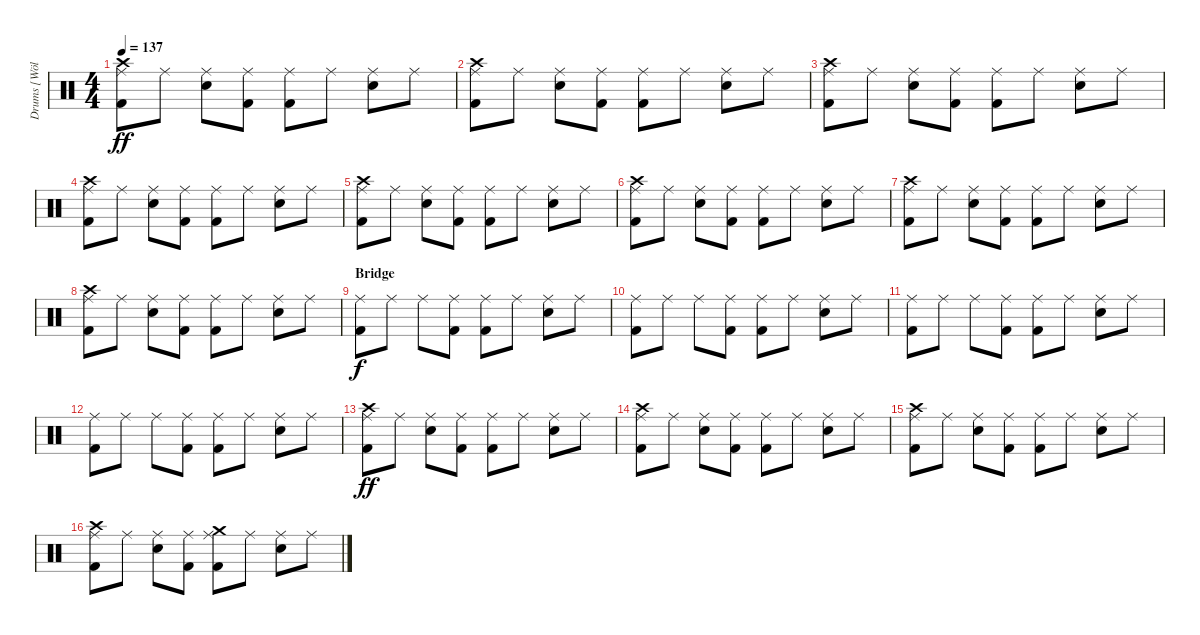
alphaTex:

\track ("Drums [Wölli]" "Drums [Wöl") {instrument percussion}
\staff {score}
\articulation defaults
\ts (4 4)
\tempo 137
\clef neutral
\ks c
("Ride (middle)" "Kick (hit) 2" "Crash high (hit)").8{dy ff} "Ride (middle)".8 ("Ride (middle)" "Snare (hit) 2").8 ("Ride (middle)" "Kick (hit) 2").8 ("Ride (middle)" "Kick (hit) 2").8 "Ride (middle)".8 ("Ride (middle)" "Snare (hit) 2").8 "Ride (middle)".8 |
("Ride (middle)" "Kick (hit) 2" "Crash high (hit)").8 "Ride (middle)".8 ("Ride (middle)" "Snare (hit) 2").8 ("Ride (middle)" "Kick (hit) 2").8 ("Ride (middle)" "Kick (hit) 2").8 "Ride (middle)".8 ("Ride (middle)" "Snare (hit) 2").8 "Ride (middle)".8 |
("Ride (middle)" "Kick (hit) 2" "Crash high (hit)").8 "Ride (middle)".8 ("Ride (middle)" "Snare (hit) 2").8 ("Ride (middle)" "Kick (hit) 2").8 ("Ride (middle)" "Kick (hit) 2").8 "Ride (middle)".8 ("Ride (middle)" "Snare (hit) 2").8 "Ride (middle)".8 |
("Ride (middle)" "Kick (hit) 2" "Crash high (hit)").8 "Ride (middle)".8 ("Ride (middle)" "Snare (hit) 2").8 ("Ride (middle)" "Kick (hit) 2").8 ("Ride (middle)" "Kick (hit) 2").8 "Ride (middle)".8 ("Ride (middle)" "Snare (hit) 2").8 "Ride (middle)".8 |
("Ride (middle)" "Kick (hit) 2" "Crash high (hit)").8 "Ride (middle)".8 ("Ride (middle)" "Snare (hit) 2").8 ("Ride (middle)" "Kick (hit) 2").8 ("Ride (middle)" "Kick (hit) 2").8 "Ride (middle)".8 ("Ride (middle)" "Snare (hit) 2").8 "Ride (middle)".8 |
("Ride (middle)" "Kick (hit) 2" "Crash high (hit)").8 "Ride (middle)".8 ("Ride (middle)" "Snare (hit) 2").8 ("Ride (middle)" "Kick (hit) 2").8 ("Ride (middle)" "Kick (hit) 2").8 "Ride (middle)".8 ("Ride (middle)" "Snare (hit) 2").8 "Ride (middle)".8 |
("Ride (middle)" "Kick (hit) 2" "Crash high (hit)").8 "Ride (middle)".8 ("Ride (middle)" "Snare (hit) 2").8 ("Ride (middle)" "Kick (hit) 2").8 ("Ride (middle)" "Kick (hit) 2").8 "Ride (middle)".8 ("Ride (middle)" "Snare (hit) 2").8 "Ride (middle)".8 |
("Ride (middle)" "Kick (hit) 2" "Crash high (hit)").8 "Ride (middle)".8 ("Ride (middle)" "Snare (hit) 2").8 ("Ride (middle)" "Kick (hit) 2").8 ("Ride (middle)" "Kick (hit) 2").8 "Ride (middle)".8 ("Ride (middle)" "Snare (hit) 2").8 "Ride (middle)".8 |
\section ("" "Bridge")
("Ride (middle)" "Kick (hit) 2").8{dy f} "Ride (middle)".8 "Ride (middle)".8 ("Ride (middle)" "Kick (hit) 2").8 ("Ride (middle)" "Kick (hit) 2").8 "Ride (middle)".8 ("Ride (middle)" "Snare (hit) 2").8 "Ride (middle)".8 |
("Ride (middle)" "Kick (hit) 2").8 "Ride (middle)".8 "Ride (middle)".8 ("Ride (middle)" "Kick (hit) 2").8 ("Ride (middle)" "Kick (hit) 2").8 "Ride (middle)".8 ("Ride (middle)" "Snare (hit) 2").8 "Ride (middle)".8 |
("Ride (middle)" "Kick (hit) 2").8 "Ride (middle)".8 "Ride (middle)".8 ("Ride (middle)" "Kick (hit) 2").8 ("Ride (middle)" "Kick (hit) 2").8 "Ride (middle)".8 ("Ride (middle)" "Snare (hit) 2").8 "Ride (middle)".8 |
("Ride (middle)" "Kick (hit) 2").8 "Ride (middle)".8 "Ride (middle)".8 ("Ride (middle)" "Kick (hit) 2").8 ("Ride (middle)" "Kick (hit) 2").8 "Ride (middle)".8 ("Ride (middle)" "Snare (hit) 2").8 "Ride (middle)".8 |
("Ride (middle)" "Kick (hit) 2" "Crash high (hit)").8{dy ff} "Ride (middle)".8 ("Ride (middle)" "Snare (hit) 2").8 ("Ride (middle)" "Kick (hit) 2").8 ("Ride (middle)" "Kick (hit) 2").8 "Ride (middle)".8 ("Ride (middle)" "Snare (hit) 2").8 "Ride (middle)".8 |
("Ride (middle)" "Kick (hit) 2" "Crash high (hit)").8 "Ride (middle)".8 ("Ride (middle)" "Snare (hit) 2").8 ("Ride (middle)" "Kick (hit) 2").8 ("Ride (middle)" "Kick (hit) 2").8 "Ride (middle)".8 ("Ride (middle)" "Snare (hit) 2").8 "Ride (middle)".8 |
("Ride (middle)" "Kick (hit) 2" "Crash high (hit)").8 "Ride (middle)".8 ("Ride (middle)" "Snare (hit) 2").8 ("Ride (middle)" "Kick (hit) 2").8 ("Ride (middle)" "Kick (hit) 2").8 "Ride (middle)".8 ("Ride (middle)" "Snare (hit) 2").8 "Ride (middle)".8 |
("Ride (middle)" "Kick (hit) 2" "Crash high (hit)").8 "Ride (middle)".8 ("Ride (middle)" "Snare (hit) 2").8 ("Ride (middle)" "Kick (hit) 2").8 ("Ride (middle)" "Kick (hit) 2" "Crash medium (hit)").8 "Ride (middle)".8 ("Ride (middle)" "Snare (hit) 2").8 "Ride (middle)".8
